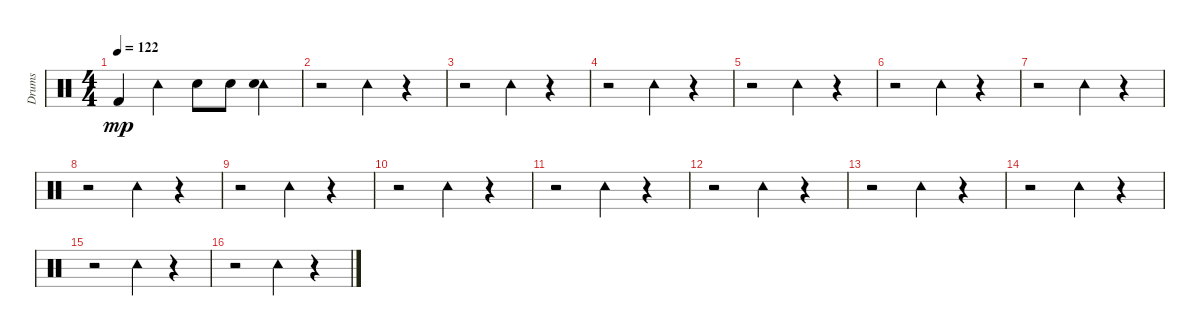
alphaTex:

\track ("Drums" "Drums") {instrument percussion}
\staff {score}
\articulation defaults
\ts (4 4)
\tempo 122
\clef neutral
\ks c "Kick (hit) 2".4{dy mp} "Tambourine (hit)".4 "Snare (hit) 2".8 "Snare (hit) 2".8
("Tambourine (hit)" "Snare (hit) 2").4 |
r.2 "Tambourine (hit)".4 r.4 |
r.2 "Tambourine (hit)".4 r.4 |
r.2 "Tambourine (hit)".4 r.4 |
r.2 "Tambourine (hit)".4 r.4 |
r.2 "Tambourine (hit)".4 r.4 |
r.2 "Tambourine (hit)".4 r.4 |
r.2 "Tambourine (hit)".4 r.4 |
r.2 "Tambourine (hit)".4 r.4 |
r.2 "Tambourine (hit)".4 r.4 |
r.2 "Tambourine (hit)".4 r.4 |
r.2 "Tambourine (hit)".4 r.4 |
r.2 "Tambourine (hit)".4 r.4 |
r.2 "Tambourine (hit)".4 r.4 |
r.2 "Tambourine (hit)".4 r.4 |
r.2 "Tambourine (hit)".4 r.4
